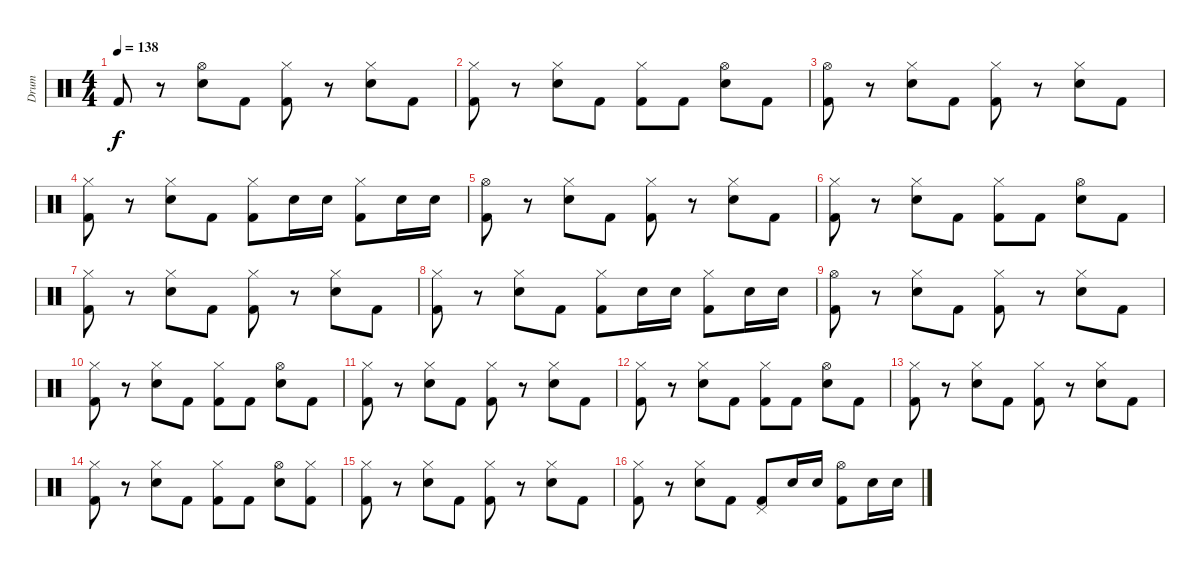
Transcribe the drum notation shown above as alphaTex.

\track ("Drum" "Drum") {instrument percussion}
\staff {score}
\articulation defaults
\ts (4 4)
\tempo 138
\clef neutral
\ks c "Kick (hit) 2".8{dy f}
r.8 ("Hi-Hat (open)" "Electric Snare (hit)").8 "Kick (hit) 2".8 ("Hi-Hat (closed)" "Kick (hit) 2").8 r.8 ("Hi-Hat (closed)" "Electric Snare (hit)").8 "Kick (hit) 2".8 |
("Hi-Hat (closed)" "Kick (hit) 2").8 r.8 ("Hi-Hat (closed)" "Electric Snare (hit)").8 "Kick (hit) 2".8 ("Hi-Hat (closed)" "Kick (hit) 2").8 "Kick (hit) 2".8 ("Hi-Hat (open)" "Electric Snare (hit)").8 "Kick (hit) 2".8 |
("Hi-Hat (open)" "Kick (hit) 2").8 r.8 ("Hi-Hat (closed)" "Electric Snare (hit)").8 "Kick (hit) 2".8 ("Hi-Hat (closed)" "Kick (hit) 2").8 r.8 ("Hi-Hat (closed)" "Electric Snare (hit)").8 "Kick (hit) 2".8 |
("Hi-Hat (closed)" "Kick (hit) 2").8 r.8 ("Hi-Hat (closed)" "Electric Snare (hit)").8 "Kick (hit) 2".8 ("Hi-Hat (closed)" "Kick (hit) 2").8 "Electric Snare (hit)".16 "Electric Snare (hit)".16 ("Hi-Hat (closed)" "Kick (hit) 2").8 "Electric Snare (hit)".16 "Electric Snare (hit)".16 |
("Hi-Hat (open)" "Kick (hit) 2").8 r.8 ("Hi-Hat (closed)" "Electric Snare (hit)").8 "Kick (hit) 2".8 ("Hi-Hat (closed)" "Kick (hit) 2").8 r.8 ("Hi-Hat (closed)" "Electric Snare (hit)").8 "Kick (hit) 2".8 |
("Hi-Hat (closed)" "Kick (hit) 2").8 r.8 ("Hi-Hat (closed)" "Electric Snare (hit)").8 "Kick (hit) 2".8 ("Hi-Hat (closed)" "Kick (hit) 2").8 "Kick (hit) 2".8 ("Hi-Hat (open)" "Electric Snare (hit)").8 "Kick (hit) 2".8 |
("Hi-Hat (closed)" "Kick (hit) 2").8 r.8 ("Hi-Hat (closed)" "Electric Snare (hit)").8 "Kick (hit) 2".8 ("Hi-Hat (closed)" "Kick (hit) 2").8 r.8 ("Hi-Hat (closed)" "Electric Snare (hit)").8 "Kick (hit) 2".8 |
("Hi-Hat (closed)" "Kick (hit) 2").8 r.8 ("Hi-Hat (closed)" "Electric Snare (hit)").8 "Kick (hit) 2".8 ("Hi-Hat (closed)" "Kick (hit) 2").8 "Electric Snare (hit)".16 "Electric Snare (hit)".16 ("Hi-Hat (closed)" "Kick (hit) 2").8 "Electric Snare (hit)".16 "Electric Snare (hit)".16 |
("Hi-Hat (open)" "Kick (hit) 2").8 r.8 ("Hi-Hat (closed)" "Electric Snare (hit)").8 "Kick (hit) 2".8 ("Hi-Hat (closed)" "Kick (hit) 2").8 r.8 ("Hi-Hat (closed)" "Electric Snare (hit)").8 "Kick (hit) 2".8 |
("Hi-Hat (closed)" "Kick (hit) 2").8 r.8 ("Hi-Hat (closed)" "Electric Snare (hit)").8 "Kick (hit) 2".8 ("Hi-Hat (closed)" "Kick (hit) 2").8 "Kick (hit) 2".8 ("Hi-Hat (open)" "Electric Snare (hit)").8 "Kick (hit) 2".8 |
("Hi-Hat (closed)" "Kick (hit) 2").8 r.8 ("Hi-Hat (closed)" "Electric Snare (hit)").8 "Kick (hit) 2".8 ("Hi-Hat (closed)" "Kick (hit) 2").8 r.8 ("Hi-Hat (closed)" "Electric Snare (hit)").8 "Kick (hit) 2".8 |
("Hi-Hat (closed)" "Kick (hit) 2").8 r.8 ("Hi-Hat (closed)" "Electric Snare (hit)").8 "Kick (hit) 2".8 ("Hi-Hat (closed)" "Kick (hit) 2").8 "Kick (hit) 2".8 ("Hi-Hat (open)" "Electric Snare (hit)").8 "Kick (hit) 2".8 |
("Hi-Hat (closed)" "Kick (hit) 2").8 r.8 ("Hi-Hat (closed)" "Electric Snare (hit)").8 "Kick (hit) 2".8 ("Hi-Hat (closed)" "Kick (hit) 2").8 r.8 ("Hi-Hat (closed)" "Electric Snare (hit)").8 "Kick (hit) 2".8 |
("Hi-Hat (closed)" "Kick (hit) 2").8 r.8 ("Hi-Hat (closed)" "Electric Snare (hit)").8 "Kick (hit) 2".8 ("Hi-Hat (closed)" "Kick (hit) 2").8 "Kick (hit) 2".8 ("Hi-Hat (open)" "Electric Snare (hit)").8 ("Hi-Hat (closed)" "Kick (hit) 2").8 |
("Hi-Hat (closed)" "Kick (hit) 2").8 r.8 ("Hi-Hat (closed)" "Electric Snare (hit)").8 "Kick (hit) 2".8 ("Hi-Hat (closed)" "Kick (hit) 2").8 r.8 ("Hi-Hat (closed)" "Electric Snare (hit)").8 "Kick (hit) 2".8 |
("Hi-Hat (closed)" "Kick (hit) 2").8 r.8 ("Hi-Hat (closed)" "Electric Snare (hit)").8 "Kick (hit) 2".8 ("Pedal Hi-Hat (hit)" "Kick (hit) 2").8 "Electric Snare (hit)".16 "Electric Snare (hit)".16 ("Hi-Hat (open)" "Kick (hit) 2").8 "Electric Snare (hit)".16 "Electric Snare (hit)".16
